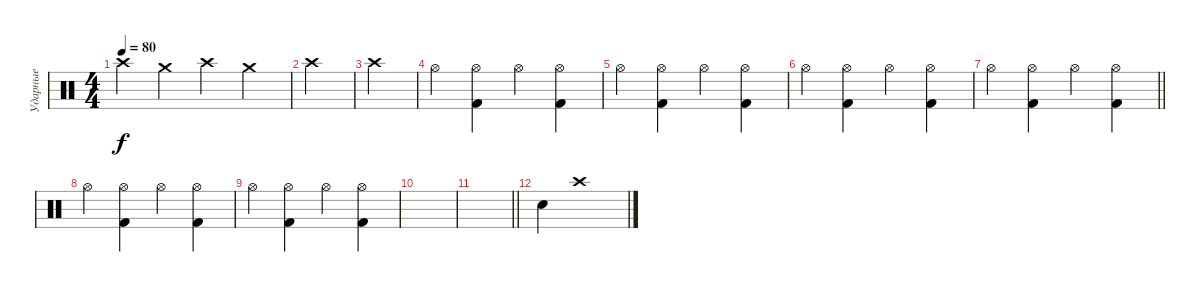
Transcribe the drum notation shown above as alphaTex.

\track ("Ударные" "Ударные") {instrument percussion}
\staff {score}
\articulation defaults
\ts (4 4)
\tempo 80
\clef neutral
\ks c "Crash high (hit)".4{dy f} "Crash medium (hit)".4 "Crash high (hit)".4 "Crash medium (hit)".4
|
"Crash high (hit)".4 |
"Crash high (hit)".4 |
"Hi-Hat (open)".4 ("Hi-Hat (open)" "Kick (hit) 2").4 "Hi-Hat (open)".4 ("Hi-Hat (open)" "Kick (hit) 2").4 |
"Hi-Hat (open)".4 ("Hi-Hat (open)" "Kick (hit) 2").4 "Hi-Hat (open)".4 ("Hi-Hat (open)" "Kick (hit) 2").4 |
"Hi-Hat (open)".4 ("Hi-Hat (open)" "Kick (hit) 2").4 "Hi-Hat (open)".4 ("Hi-Hat (open)" "Kick (hit) 2").4 |
\barLineRight lightlight "Hi-Hat (open)".4
("Hi-Hat (open)" "Kick (hit) 2").4 "Hi-Hat (open)".4 ("Hi-Hat (open)" "Kick (hit) 2").4 |
"Hi-Hat (open)".4 ("Hi-Hat (open)" "Kick (hit) 2").4 "Hi-Hat (open)".4 ("Hi-Hat (open)" "Kick (hit) 2").4 |
"Hi-Hat (open)".4 ("Hi-Hat (open)" "Kick (hit) 2").4 "Hi-Hat (open)".4 ("Hi-Hat (open)" "Kick (hit) 2").4 |
|
\barLineRight lightlight
|
"Snare (hit)".4 "Crash high (hit)".1
